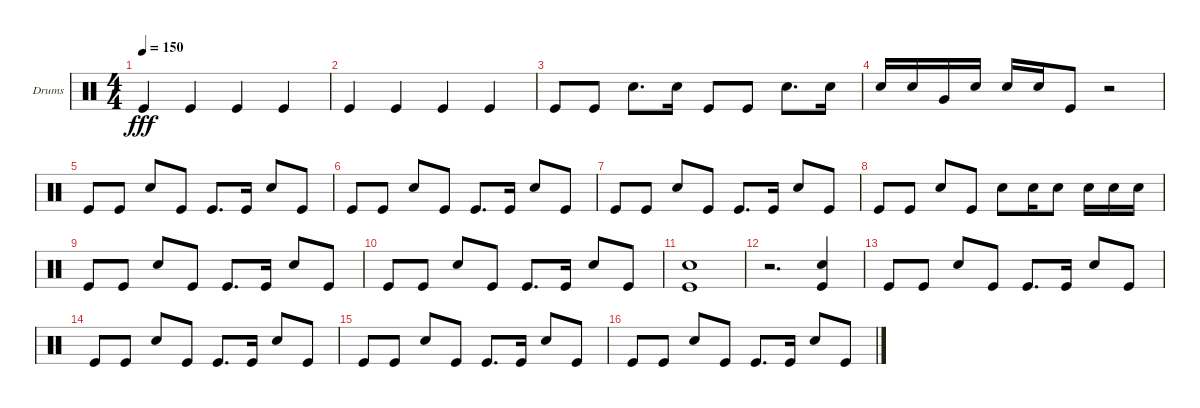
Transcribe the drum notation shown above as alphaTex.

\defaultSystemsLayout 4
\bracketExtendMode groupsimilarinstruments
\firstSystemTrackNameOrientation horizontal
\otherSystemsTrackNameOrientation horizontal
\track ("Helders" "Drums") {instrument percussion}
\staff {score}
\articulation defaults
\ts (4 4)
\tempo 150
\clef neutral
\ks c "Kick (hit)".4{dy fff} "Kick (hit)".4 "Kick (hit)".4 "Kick (hit)".4
|
"Kick (hit)".4 "Kick (hit)".4 "Kick (hit)".4 "Kick (hit)".4 |
"Kick (hit)".8 "Kick (hit)".8 "Snare (hit) 2".8{d} "Snare (hit) 2".16 "Kick (hit)".8 "Kick (hit)".8 "Snare (hit) 2".8{d} "Snare (hit) 2".16 |
"Snare (hit) 2".16 "Snare (hit) 2".16 "Very Low Tom (hit)".16 "Snare (hit) 2".16 "Snare (hit) 2".16 "Snare (hit) 2".16 "Kick (hit)".8 r.2 |
"Kick (hit)".8 "Kick (hit)".8 "Snare (hit) 2".8 "Kick (hit)".8 "Kick (hit)".8{d} "Kick (hit)".16 "Snare (hit) 2".8 "Kick (hit)".8 |
"Kick (hit)".8 "Kick (hit)".8 "Snare (hit) 2".8 "Kick (hit)".8 "Kick (hit)".8{d} "Kick (hit)".16 "Snare (hit) 2".8 "Kick (hit)".8 |
"Kick (hit)".8 "Kick (hit)".8 "Snare (hit) 2".8 "Kick (hit)".8 "Kick (hit)".8{d} "Kick (hit)".16 "Snare (hit) 2".8 "Kick (hit)".8 |
"Kick (hit)".8 "Kick (hit)".8 "Snare (hit) 2".8 "Kick (hit)".8 "Snare (hit) 2".8 "Snare (hit) 2".16 "Snare (hit) 2".8 "Snare (hit) 2".16 "Snare (hit) 2".16 "Snare (hit) 2".16 |
"Kick (hit)".8 "Kick (hit)".8 "Snare (hit) 2".8 "Kick (hit)".8 "Kick (hit)".8{d} "Kick (hit)".16 "Snare (hit) 2".8 "Kick (hit)".8 |
"Kick (hit)".8 "Kick (hit)".8 "Snare (hit) 2".8 "Kick (hit)".8 "Kick (hit)".8{d} "Kick (hit)".16 "Snare (hit) 2".8 "Kick (hit)".8 |
("Kick (hit)" "Snare (hit) 2").1 |
r.2{d} ("Snare (hit) 2" "Kick (hit)").4 |
"Kick (hit)".8 "Kick (hit)".8 "Snare (hit) 2".8 "Kick (hit)".8 "Kick (hit)".8{d} "Kick (hit)".16 "Snare (hit) 2".8 "Kick (hit)".8 |
"Kick (hit)".8 "Kick (hit)".8 "Snare (hit) 2".8 "Kick (hit)".8 "Kick (hit)".8{d} "Kick (hit)".16 "Snare (hit) 2".8 "Kick (hit)".8 |
"Kick (hit)".8 "Kick (hit)".8 "Snare (hit) 2".8 "Kick (hit)".8 "Kick (hit)".8{d} "Kick (hit)".16 "Snare (hit) 2".8 "Kick (hit)".8 |
"Kick (hit)".8 "Kick (hit)".8 "Snare (hit) 2".8 "Kick (hit)".8 "Kick (hit)".8{d} "Kick (hit)".16 "Snare (hit) 2".8 "Kick (hit)".8
